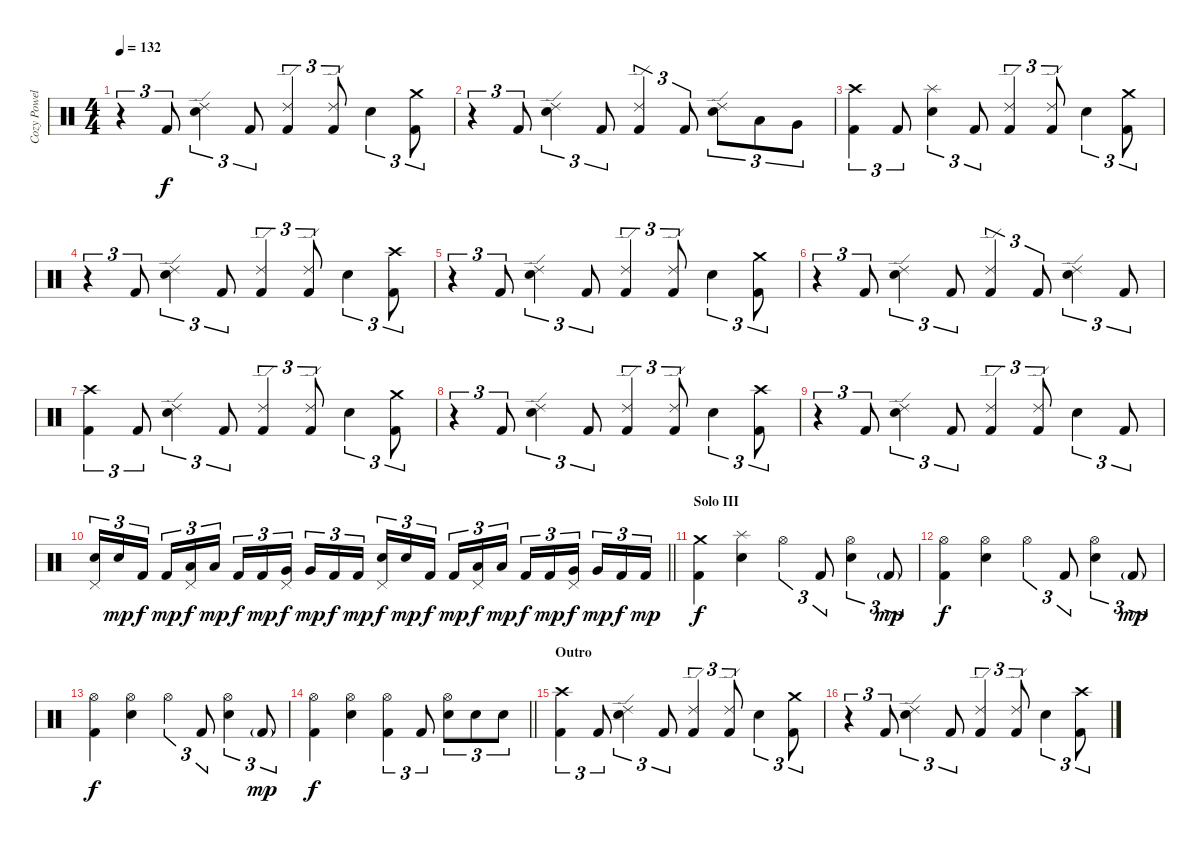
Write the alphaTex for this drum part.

\track ("Cozy Powell" "Cozy Powel") {instrument percussion}
\staff {score}
\articulation defaults
\ts (4 4)
\tempo 132
\clef neutral
\ks c
r.4{tu (3 2) dy f} "Kick (hit) 2".8{tu (3 2)} ("Ride (edge) 2" "Snare (hit) 2").4{tu (3 2)} "Kick (hit) 2".8{tu (3 2)} ("Ride (edge) 2" "Kick (hit) 2").4{tu (3 2)} ("Ride (edge) 2" "Kick (hit) 2").8{tu (3 2)} "Snare (hit) 2".4{tu (3 2)} ("Crash medium (hit)" "Kick (hit) 2").8{tu (3 2)} |
r.4{tu (3 2)} "Kick (hit) 2".8{tu (3 2)} ("Ride (edge) 2" "Snare (hit) 2").4{tu (3 2)} "Kick (hit) 2".8{tu (3 2)} ("Ride (edge) 2" "Kick (hit) 2").4{tu (3 2)} "Kick (hit) 2".8{tu (3 2)} ("Ride (edge) 2" "Snare (hit) 2").8{tu (3 2)} "Low Tom (hit)".8{tu (3 2)} "Very Low Tom (hit)".8{tu (3 2)} |
("Crash high (hit)" "Kick (hit) 2").4{tu (3 2)} "Kick (hit) 2".8{tu (3 2)} ("Splash (hit)" "Snare (hit) 2").4{tu (3 2)} "Kick (hit) 2".8{tu (3 2)} ("Ride (edge) 2" "Kick (hit) 2").4{tu (3 2)} ("Ride (edge) 2" "Kick (hit) 2").8{tu (3 2)} "Snare (hit) 2".4{tu (3 2)} ("Crash medium (hit)" "Kick (hit) 2").8{tu (3 2)} |
r.4{tu (3 2)} "Kick (hit) 2".8{tu (3 2)} ("Ride (edge) 2" "Snare (hit) 2").4{tu (3 2)} "Kick (hit) 2".8{tu (3 2)} ("Ride (edge) 2" "Kick (hit) 2").4{tu (3 2)} ("Ride (edge) 2" "Kick (hit) 2").8{tu (3 2)} "Snare (hit) 2".4{tu (3 2)} ("Crash high (hit)" "Kick (hit) 2").8{tu (3 2)} |
r.4{tu (3 2)} "Kick (hit) 2".8{tu (3 2)} ("Ride (edge) 2" "Snare (hit) 2").4{tu (3 2)} "Kick (hit) 2".8{tu (3 2)} ("Ride (edge) 2" "Kick (hit) 2").4{tu (3 2)} ("Ride (edge) 2" "Kick (hit) 2").8{tu (3 2)} "Snare (hit) 2".4{tu (3 2)} ("Crash medium (hit)" "Kick (hit) 2").8{tu (3 2)} |
r.4{tu (3 2)} "Kick (hit) 2".8{tu (3 2)} ("Ride (edge) 2" "Snare (hit) 2").4{tu (3 2)} "Kick (hit) 2".8{tu (3 2)} ("Ride (edge) 2" "Kick (hit) 2").4{tu (3 2)} "Kick (hit) 2".8{tu (3 2)} ("Ride (edge) 2" "Snare (hit) 2").4{tu (3 2)} "Kick (hit) 2".8{tu (3 2)} |
("Crash high (hit)" "Kick (hit) 2").4{tu (3 2)} "Kick (hit) 2".8{tu (3 2)} ("Ride (edge) 2" "Snare (hit) 2").4{tu (3 2)} "Kick (hit) 2".8{tu (3 2)} ("Ride (edge) 2" "Kick (hit) 2").4{tu (3 2)} ("Ride (edge) 2" "Kick (hit) 2").8{tu (3 2)} "Snare (hit) 2".4{tu (3 2)} ("Crash medium (hit)" "Kick (hit) 2").8{tu (3 2)} |
r.4{tu (3 2)} "Kick (hit) 2".8{tu (3 2)} ("Ride (edge) 2" "Snare (hit) 2").4{tu (3 2)} "Kick (hit) 2".8{tu (3 2)} ("Ride (edge) 2" "Kick (hit) 2").4{tu (3 2)} ("Ride (edge) 2" "Kick (hit) 2").8{tu (3 2)} "Snare (hit) 2".4{tu (3 2)} ("Crash high (hit)" "Kick (hit) 2").8{tu (3 2)} |
r.4{tu (3 2)} "Kick (hit) 2".8{tu (3 2)} ("Ride (edge) 2" "Snare (hit) 2").4{tu (3 2)} "Kick (hit) 2".8{tu (3 2)} ("Ride (edge) 2" "Kick (hit) 2").4{tu (3 2)} ("Ride (edge) 2" "Kick (hit) 2").8{tu (3 2)} "Snare (hit) 2".4{tu (3 2)} "Kick (hit) 2".8{tu (3 2)} |
\barLineRight lightlight
("Pedal Hi-Hat (hit)" "Snare (hit) 2").16{tu (3 2)} "Snare (hit) 2".16{tu (3 2) dy mp} "Kick (hit) 2".16{tu (3 2) dy f beam splitsecondary} "Kick (hit) 2".16{tu (3 2) dy mp} ("Pedal Hi-Hat (hit)" "Low Tom (hit)").16{tu (3 2) dy f} "Low Tom (hit)".16{tu (3 2) dy mp} "Kick (hit) 2".16{tu (3 2) dy f} "Kick (hit) 2".16{tu (3 2) dy mp} ("Pedal Hi-Hat (hit)" "Very Low Tom (hit)").16{tu (3 2) dy f beam splitsecondary} "Very Low Tom (hit)".16{tu (3 2) dy mp} "Kick (hit) 2".16{tu (3 2) dy f} "Kick (hit) 2".16{tu (3 2) dy mp} ("Pedal Hi-Hat (hit)" "Snare (hit) 2").16{tu (3 2) dy f} "Snare (hit) 2".16{tu (3 2) dy mp} "Kick (hit) 2".16{tu (3 2) dy f beam splitsecondary} "Kick (hit) 2".16{tu (3 2) dy mp} ("Pedal Hi-Hat (hit)" "Low Tom (hit)").16{tu (3 2) dy f} "Low Tom (hit)".16{tu (3 2) dy mp} "Kick (hit) 2".16{tu (3 2) dy f} "Kick (hit) 2".16{tu (3 2) dy mp} ("Pedal Hi-Hat (hit)" "Very Low Tom (hit)").16{tu (3 2) dy f beam splitsecondary} "Very Low Tom (hit)".16{tu (3 2) dy mp} "Kick (hit) 2".16{tu (3 2) dy f} "Kick (hit) 2".16{tu (3 2) dy mp} |
\section ("" "Solo III")
("Crash medium (hit)" "Kick (hit) 2").4{dy f} ("Splash (hit)" "Snare (hit) 2").4 "Hi-Hat (open)".4{tu (3 2)} "Kick (hit) 2".8{tu (3 2)} ("Hi-Hat (open)" "Snare (hit) 2").4{tu (3 2)} "Kick (hit) 2"{g}.8{tu (3 2) dy mp} |
("Hi-Hat (open)" "Kick (hit) 2").4{dy f} ("Hi-Hat (open)" "Snare (hit) 2").4 "Hi-Hat (open)".4{tu (3 2)} "Kick (hit) 2".8{tu (3 2)} ("Hi-Hat (open)" "Snare (hit) 2").4{tu (3 2)} "Kick (hit) 2"{g}.8{tu (3 2) dy mp} |
("Hi-Hat (open)" "Kick (hit) 2").4{dy f} ("Hi-Hat (open)" "Snare (hit) 2").4 "Hi-Hat (open)".4{tu (3 2)} "Kick (hit) 2".8{tu (3 2)} ("Hi-Hat (open)" "Snare (hit) 2").4{tu (3 2)} "Kick (hit) 2"{g}.8{tu (3 2) dy mp} |
\barLineRight lightlight
("Hi-Hat (open)" "Kick (hit) 2").4{dy f} ("Hi-Hat (open)" "Snare (hit) 2").4 ("Hi-Hat (open)" "Kick (hit) 2").4{tu (3 2)} "Kick (hit) 2".8{tu (3 2)} ("Hi-Hat (open)" "Snare (hit) 2").8{tu (3 2)} "Snare (hit) 2".8{tu (3 2)} "Snare (hit) 2".8{tu (3 2)} |
\section ("" "Outro")
("Crash high (hit)" "Kick (hit) 2").4{tu (3 2)} "Kick (hit) 2".8{tu (3 2)} ("Ride (edge) 2" "Snare (hit) 2").4{tu (3 2)} "Kick (hit) 2".8{tu (3 2)} ("Ride (edge) 2" "Kick (hit) 2").4{tu (3 2)} ("Ride (edge) 2" "Kick (hit) 2").8{tu (3 2)} "Snare (hit) 2".4{tu (3 2)} ("Crash medium (hit)" "Kick (hit) 2").8{tu (3 2)} |
r.4{tu (3 2)} "Kick (hit) 2".8{tu (3 2)} ("Ride (edge) 2" "Snare (hit) 2").4{tu (3 2)} "Kick (hit) 2".8{tu (3 2)} ("Ride (edge) 2" "Kick (hit) 2").4{tu (3 2)} ("Ride (edge) 2" "Kick (hit) 2").8{tu (3 2)} "Snare (hit) 2".4{tu (3 2)} ("Crash high (hit)" "Kick (hit) 2").8{tu (3 2)}
